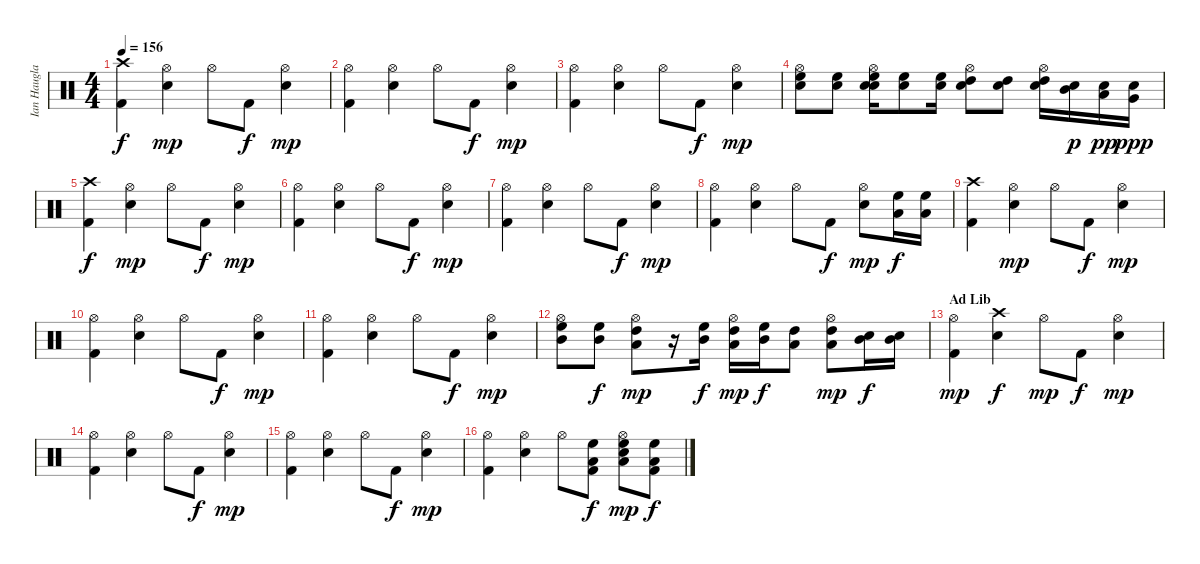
\track ("Ian Haugland" "Ian Haugla") {instrument percussion}
\staff {score}
\articulation defaults
\ts (4 4)
\tempo 156
\clef neutral
\ks c
("Kick (hit) 2" "Crash high (hit)").4{dy f} ("Hi-Hat (open)" "Snare (hit) 2").4{dy mp} "Hi-Hat (open)".8 "Kick (hit) 2".8{dy f} ("Hi-Hat (open)" "Snare (hit) 2").4{dy mp} |
("Kick (hit) 2" "Hi-Hat (open)").4 ("Hi-Hat (open)" "Snare (hit) 2").4 "Hi-Hat (open)".8 "Kick (hit) 2".8{dy f} ("Hi-Hat (open)" "Snare (hit) 2").4{dy mp} |
("Kick (hit) 2" "Hi-Hat (open)").4 ("Hi-Hat (open)" "Snare (hit) 2").4 "Hi-Hat (open)".8 "Kick (hit) 2".8{dy f} ("Hi-Hat (open)" "Snare (hit) 2").4{dy mp} |
("Hi-Hat (open)" "High Floor Tom (hit)" "Hand Clap (hit)").8 ("High Floor Tom (hit)" "Hand Clap (hit)").8 ("Hi-Hat (open)" "High Floor Tom (hit)" "Hand Clap (hit)" "Snare (hit) 2").16 ("High Floor Tom (hit)" "Hand Clap (hit)").8 ("High Floor Tom (hit)" "Hand Clap (hit)").16 ("Hi-Hat (open)" "High Tom (hit)" "Hand Clap (hit)").8 ("High Tom (hit)" "Hand Clap (hit)").8 ("Hi-Hat (open)" "High Tom (hit)" "Hand Clap (hit)").16 ("Mid Tom (hit)" "Hand Clap (hit)").16{dy p} ("Low Tom (hit)" "Hand Clap (hit)").16{dy pp} ("Very Low Tom (hit)" "Hand Clap (hit)").16{dy ppp} |
("Kick (hit) 2" "Crash high (hit)").4{dy f} ("Hi-Hat (open)" "Snare (hit) 2").4{dy mp} "Hi-Hat (open)".8 "Kick (hit) 2".8{dy f} ("Hi-Hat (open)" "Snare (hit) 2").4{dy mp} |
("Kick (hit) 2" "Hi-Hat (open)").4 ("Hi-Hat (open)" "Snare (hit) 2").4 "Hi-Hat (open)".8 "Kick (hit) 2".8{dy f} ("Hi-Hat (open)" "Snare (hit) 2").4{dy mp} |
("Kick (hit) 2" "Hi-Hat (open)").4 ("Hi-Hat (open)" "Snare (hit) 2").4 "Hi-Hat (open)".8 "Kick (hit) 2".8{dy f} ("Hi-Hat (open)" "Snare (hit) 2").4{dy mp} |
("Kick (hit) 2" "Hi-Hat (open)").4 ("Hi-Hat (open)" "Snare (hit) 2").4 "Hi-Hat (open)".8 "Kick (hit) 2".8{dy f} ("Hi-Hat (open)" "Snare (hit) 2").8{dy mp} ("High Floor Tom (hit)" "Low Tom (hit)").16{dy f} ("High Floor Tom (hit)" "Low Tom (hit)").16 |
("Kick (hit) 2" "Crash high (hit)").4 ("Hi-Hat (open)" "Snare (hit) 2").4{dy mp} "Hi-Hat (open)".8 "Kick (hit) 2".8{dy f} ("Hi-Hat (open)" "Snare (hit) 2").4{dy mp} |
("Kick (hit) 2" "Hi-Hat (open)").4 ("Hi-Hat (open)" "Snare (hit) 2").4 "Hi-Hat (open)".8 "Kick (hit) 2".8{dy f} ("Hi-Hat (open)" "Snare (hit) 2").4{dy mp} |
("Kick (hit) 2" "Hi-Hat (open)").4 ("Hi-Hat (open)" "Snare (hit) 2").4 "Hi-Hat (open)".8 "Kick (hit) 2".8{dy f} ("Hi-Hat (open)" "Snare (hit) 2").4{dy mp} |
("Hi-Hat (open)" "High Floor Tom (hit)" "Mid Tom (hit)").8 ("High Floor Tom (hit)" "Mid Tom (hit)").8{dy f} ("Hi-Hat (open)" "High Tom (hit)" "Low Tom (hit)").8{dy mp} r.16 ("High Floor Tom (hit)" "Mid Tom (hit)").16{dy f} ("Hi-Hat (open)" "High Tom (hit)" "Low Tom (hit)").16{dy mp} ("High Floor Tom (hit)" "Mid Tom (hit)").16{dy f} ("High Tom (hit)" "Low Tom (hit)").8 ("Hi-Hat (open)" "High Tom (hit)" "Low Tom (hit)").8{dy mp} ("Snare (hit) 2" "Mid Tom (hit)").16{dy f} ("Snare (hit) 2" "Mid Tom (hit)").16 |
\section ("" "Ad Lib")
("Kick (hit) 2" "Hi-Hat (open)").4{dy mp} ("Crash high (hit)" "Snare (hit) 2").4{dy f} "Hi-Hat (open)".8{dy mp} "Kick (hit) 2".8{dy f} ("Hi-Hat (open)" "Snare (hit) 2").4{dy mp} |
("Kick (hit) 2" "Hi-Hat (open)").4 ("Hi-Hat (open)" "Snare (hit) 2").4 "Hi-Hat (open)".8 "Kick (hit) 2".8{dy f} ("Hi-Hat (open)" "Snare (hit) 2").4{dy mp} |
("Kick (hit) 2" "Hi-Hat (open)").4 ("Hi-Hat (open)" "Snare (hit) 2").4 "Hi-Hat (open)".8 "Kick (hit) 2".8{dy f} ("Hi-Hat (open)" "Snare (hit) 2").4{dy mp} |
("Kick (hit) 2" "Hi-Hat (open)").4 ("Hi-Hat (open)" "Snare (hit) 2").4 "Hi-Hat (open)".8 ("Kick (hit) 2" "High Floor Tom (hit)" "Low Tom (hit)").8{dy f} ("Hi-Hat (open)" "Snare (hit) 2" "High Floor Tom (hit)" "Low Tom (hit)").8{dy mp} ("Kick (hit) 2" "High Floor Tom (hit)" "Low Tom (hit)").8{dy f}
